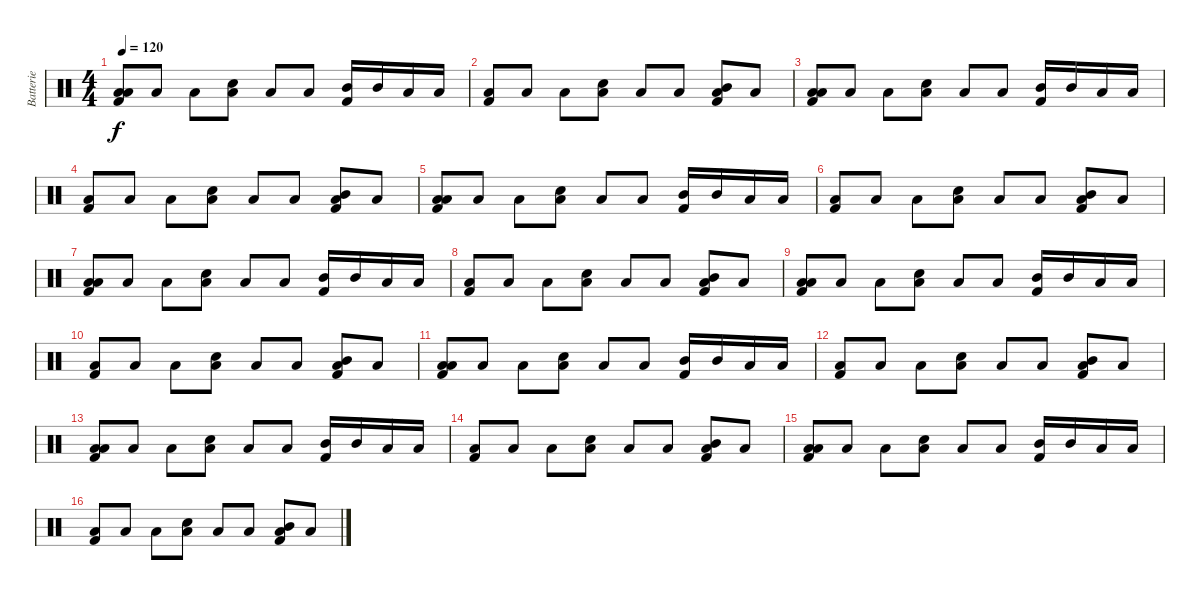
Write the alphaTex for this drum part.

\track ("Batterie" "Batterie") {instrument percussion}
\staff {score}
\articulation defaults
\ts (4 4)
\tempo 120
\clef neutral
\ks c
("Low Tom (hit)" "Low Floor Tom (hit)" "Kick (hit) 2").8{dy f} "Low Floor Tom (hit)".8 "Low Floor Tom (hit)".8 ("Low Floor Tom (hit)" "Snare (hit) 2").8 "Low Floor Tom (hit)".8 "Low Floor Tom (hit)".8 ("Mid Tom (hit)" "Kick (hit) 2").16 "Mid Tom (hit)".16 "Low Tom (hit)".16 "Low Tom (hit)".16 |
("Low Floor Tom (hit)" "Kick (hit) 2").8 "Low Floor Tom (hit)".8 "Low Floor Tom (hit)".8 ("Snare (hit) 2" "Low Floor Tom (hit)").8 "Low Floor Tom (hit)".8 "Low Floor Tom (hit)".8 ("Mid Tom (hit)" "Low Floor Tom (hit)" "Kick (hit) 2").8 "Low Floor Tom (hit)".8 |
("Low Tom (hit)" "Low Floor Tom (hit)" "Kick (hit) 2").8 "Low Floor Tom (hit)".8 "Low Floor Tom (hit)".8 ("Low Floor Tom (hit)" "Snare (hit) 2").8 "Low Floor Tom (hit)".8 "Low Floor Tom (hit)".8 ("Mid Tom (hit)" "Kick (hit) 2").16 "Mid Tom (hit)".16 "Low Tom (hit)".16 "Low Tom (hit)".16 |
("Low Floor Tom (hit)" "Kick (hit) 2").8 "Low Floor Tom (hit)".8 "Low Floor Tom (hit)".8 ("Snare (hit) 2" "Low Floor Tom (hit)").8 "Low Floor Tom (hit)".8 "Low Floor Tom (hit)".8 ("Mid Tom (hit)" "Low Floor Tom (hit)" "Kick (hit) 2").8 "Low Floor Tom (hit)".8 |
("Low Tom (hit)" "Low Floor Tom (hit)" "Kick (hit) 2").8 "Low Floor Tom (hit)".8 "Low Floor Tom (hit)".8 ("Low Floor Tom (hit)" "Snare (hit) 2").8 "Low Floor Tom (hit)".8 "Low Floor Tom (hit)".8 ("Mid Tom (hit)" "Kick (hit) 2").16 "Mid Tom (hit)".16 "Low Tom (hit)".16 "Low Tom (hit)".16 |
("Low Floor Tom (hit)" "Kick (hit) 2").8 "Low Floor Tom (hit)".8 "Low Floor Tom (hit)".8 ("Snare (hit) 2" "Low Floor Tom (hit)").8 "Low Floor Tom (hit)".8 "Low Floor Tom (hit)".8 ("Mid Tom (hit)" "Low Floor Tom (hit)" "Kick (hit) 2").8 "Low Floor Tom (hit)".8 |
("Low Tom (hit)" "Low Floor Tom (hit)" "Kick (hit) 2").8 "Low Floor Tom (hit)".8 "Low Floor Tom (hit)".8 ("Low Floor Tom (hit)" "Snare (hit) 2").8 "Low Floor Tom (hit)".8 "Low Floor Tom (hit)".8 ("Mid Tom (hit)" "Kick (hit) 2").16 "Mid Tom (hit)".16 "Low Tom (hit)".16 "Low Tom (hit)".16 |
("Low Floor Tom (hit)" "Kick (hit) 2").8 "Low Floor Tom (hit)".8 "Low Floor Tom (hit)".8 ("Snare (hit) 2" "Low Floor Tom (hit)").8 "Low Floor Tom (hit)".8 "Low Floor Tom (hit)".8 ("Mid Tom (hit)" "Low Floor Tom (hit)" "Kick (hit) 2").8 "Low Floor Tom (hit)".8 |
("Low Tom (hit)" "Low Floor Tom (hit)" "Kick (hit) 2").8 "Low Floor Tom (hit)".8 "Low Floor Tom (hit)".8 ("Low Floor Tom (hit)" "Snare (hit) 2").8 "Low Floor Tom (hit)".8 "Low Floor Tom (hit)".8 ("Mid Tom (hit)" "Kick (hit) 2").16 "Mid Tom (hit)".16 "Low Tom (hit)".16 "Low Tom (hit)".16 |
("Low Floor Tom (hit)" "Kick (hit) 2").8 "Low Floor Tom (hit)".8 "Low Floor Tom (hit)".8 ("Snare (hit) 2" "Low Floor Tom (hit)").8 "Low Floor Tom (hit)".8 "Low Floor Tom (hit)".8 ("Mid Tom (hit)" "Low Floor Tom (hit)" "Kick (hit) 2").8 "Low Floor Tom (hit)".8 |
("Low Tom (hit)" "Low Floor Tom (hit)" "Kick (hit) 2").8 "Low Floor Tom (hit)".8 "Low Floor Tom (hit)".8 ("Low Floor Tom (hit)" "Snare (hit) 2").8 "Low Floor Tom (hit)".8 "Low Floor Tom (hit)".8 ("Mid Tom (hit)" "Kick (hit) 2").16 "Mid Tom (hit)".16 "Low Tom (hit)".16 "Low Tom (hit)".16 |
("Low Floor Tom (hit)" "Kick (hit) 2").8 "Low Floor Tom (hit)".8 "Low Floor Tom (hit)".8 ("Snare (hit) 2" "Low Floor Tom (hit)").8 "Low Floor Tom (hit)".8 "Low Floor Tom (hit)".8 ("Mid Tom (hit)" "Low Floor Tom (hit)" "Kick (hit) 2").8 "Low Floor Tom (hit)".8 |
("Low Tom (hit)" "Low Floor Tom (hit)" "Kick (hit) 2").8 "Low Floor Tom (hit)".8 "Low Floor Tom (hit)".8 ("Low Floor Tom (hit)" "Snare (hit) 2").8 "Low Floor Tom (hit)".8 "Low Floor Tom (hit)".8 ("Mid Tom (hit)" "Kick (hit) 2").16 "Mid Tom (hit)".16 "Low Tom (hit)".16 "Low Tom (hit)".16 |
("Low Floor Tom (hit)" "Kick (hit) 2").8 "Low Floor Tom (hit)".8 "Low Floor Tom (hit)".8 ("Snare (hit) 2" "Low Floor Tom (hit)").8 "Low Floor Tom (hit)".8 "Low Floor Tom (hit)".8 ("Mid Tom (hit)" "Low Floor Tom (hit)" "Kick (hit) 2").8 "Low Floor Tom (hit)".8 |
("Low Tom (hit)" "Low Floor Tom (hit)" "Kick (hit) 2").8 "Low Floor Tom (hit)".8 "Low Floor Tom (hit)".8 ("Low Floor Tom (hit)" "Snare (hit) 2").8 "Low Floor Tom (hit)".8 "Low Floor Tom (hit)".8 ("Mid Tom (hit)" "Kick (hit) 2").16 "Mid Tom (hit)".16 "Low Tom (hit)".16 "Low Tom (hit)".16 |
("Low Floor Tom (hit)" "Kick (hit) 2").8 "Low Floor Tom (hit)".8 "Low Floor Tom (hit)".8 ("Snare (hit) 2" "Low Floor Tom (hit)").8 "Low Floor Tom (hit)".8 "Low Floor Tom (hit)".8 ("Mid Tom (hit)" "Low Floor Tom (hit)" "Kick (hit) 2").8 "Low Floor Tom (hit)".8
